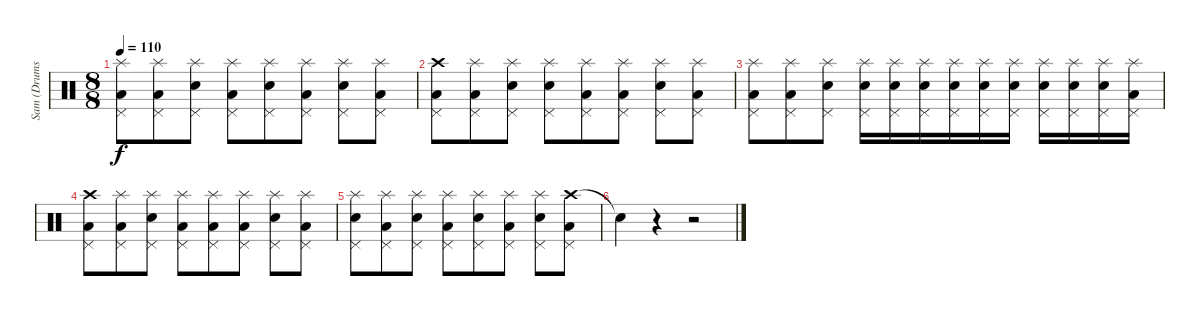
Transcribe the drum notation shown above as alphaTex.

\track ("Sam (Drums)" "Sam (Drums") {instrument percussion}
\staff {score}
\articulation defaults
\ts (8 8)
\tempo 110
\clef neutral
\ks c
("Splash (hit)" "Low Tom (hit)" "Pedal Hi-Hat (hit)").8{dy f} ("Splash (hit)" "Low Tom (hit)" "Pedal Hi-Hat (hit)").8 ("Splash (hit)" "Snare (hit) 2" "Pedal Hi-Hat (hit)").8 ("Splash (hit)" "Low Tom (hit)" "Pedal Hi-Hat (hit)").8 ("Splash (hit)" "Snare (hit) 2" "Pedal Hi-Hat (hit)").8 ("Splash (hit)" "Low Tom (hit)" "Pedal Hi-Hat (hit)").8 ("Splash (hit)" "Snare (hit) 2" "Pedal Hi-Hat (hit)").8 ("Splash (hit)" "Low Tom (hit)" "Pedal Hi-Hat (hit)").8 |
("Crash high (hit)" "Low Tom (hit)" "Pedal Hi-Hat (hit)").8 ("Splash (hit)" "Low Tom (hit)" "Pedal Hi-Hat (hit)").8 ("Splash (hit)" "Snare (hit) 2" "Pedal Hi-Hat (hit)").8 ("Splash (hit)" "Snare (hit) 2" "Pedal Hi-Hat (hit)").8 ("Splash (hit)" "Low Tom (hit)" "Pedal Hi-Hat (hit)").8 ("Splash (hit)" "Low Tom (hit)" "Pedal Hi-Hat (hit)").8 ("Splash (hit)" "Snare (hit) 2" "Pedal Hi-Hat (hit)").8 ("Splash (hit)" "Low Tom (hit)" "Pedal Hi-Hat (hit)").8 |
("Splash (hit)" "Low Tom (hit)" "Pedal Hi-Hat (hit)").8 ("Splash (hit)" "Low Tom (hit)" "Pedal Hi-Hat (hit)").8 ("Splash (hit)" "Snare (hit) 2" "Pedal Hi-Hat (hit)").8 ("Splash (hit)" "Snare (hit) 2" "Pedal Hi-Hat (hit)").16 ("Splash (hit)" "Snare (hit) 2" "Pedal Hi-Hat (hit)").16 ("Splash (hit)" "Snare (hit) 2" "Pedal Hi-Hat (hit)").16 ("Splash (hit)" "Electric Snare (hit)" "Pedal Hi-Hat (hit)").16 ("Splash (hit)" "Electric Snare (hit)" "Pedal Hi-Hat (hit)").16 ("Splash (hit)" "Electric Snare (hit)" "Pedal Hi-Hat (hit)").16 ("Splash (hit)" "Electric Snare (hit)" "Pedal Hi-Hat (hit)").16 ("Splash (hit)" "Electric Snare (hit)" "Pedal Hi-Hat (hit)").16 ("Splash (hit)" "Electric Snare (hit)" "Pedal Hi-Hat (hit)").16 ("Splash (hit)" "Low Tom (hit)" "Pedal Hi-Hat (hit)").16 |
("Crash high (hit)" "Low Tom (hit)" "Pedal Hi-Hat (hit)").8 ("Splash (hit)" "Low Tom (hit)" "Pedal Hi-Hat (hit)").8 ("Splash (hit)" "Snare (hit) 2" "Pedal Hi-Hat (hit)").8 ("Splash (hit)" "Low Tom (hit)" "Pedal Hi-Hat (hit)").8 ("Splash (hit)" "Low Tom (hit)" "Pedal Hi-Hat (hit)").8 ("Splash (hit)" "Low Tom (hit)" "Pedal Hi-Hat (hit)").8 ("Splash (hit)" "Snare (hit) 2" "Pedal Hi-Hat (hit)").8 ("Splash (hit)" "Low Tom (hit)" "Pedal Hi-Hat (hit)").8 |
("Splash (hit)" "Snare (hit) 2" "Pedal Hi-Hat (hit)").8 ("Splash (hit)" "Low Tom (hit)" "Pedal Hi-Hat (hit)").8 ("Splash (hit)" "Snare (hit) 2" "Pedal Hi-Hat (hit)").8 ("Splash (hit)" "Low Tom (hit)" "Pedal Hi-Hat (hit)").8 ("Splash (hit)" "Snare (hit) 2" "Pedal Hi-Hat (hit)").8 ("Splash (hit)" "Low Tom (hit)" "Pedal Hi-Hat (hit)").8 ("Splash (hit)" "Snare (hit) 2" "Pedal Hi-Hat (hit)").8 ("Crash high (hit)" "Low Tom (hit)" "Pedal Hi-Hat (hit)").8 |
"Snare (hit)"{t}.4 r.4 r.2
